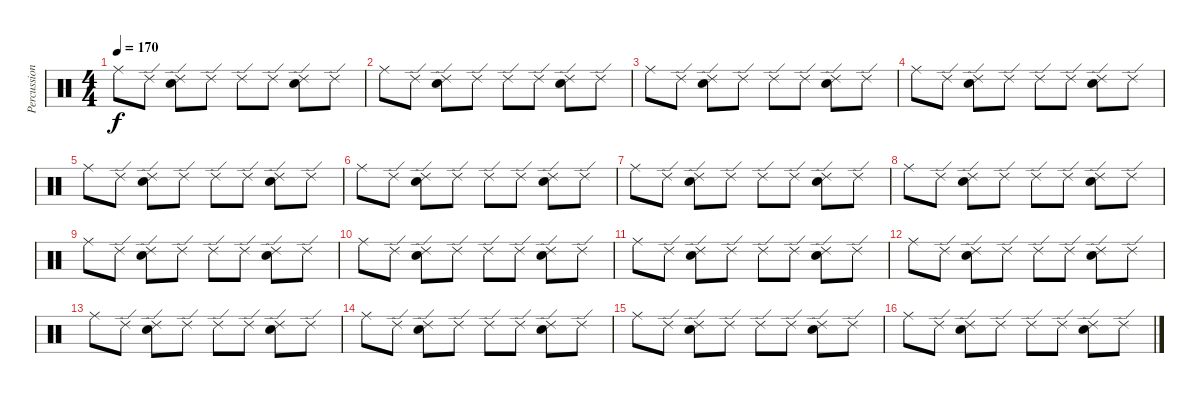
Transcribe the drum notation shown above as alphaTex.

\track ("Percussion" "Percussion") {instrument percussion}
\staff {score}
\articulation defaults
\ts (4 4)
\tempo 170
\clef neutral
\ks c "Ride (middle)".8{dy f} "Ride (edge) 2".8
("Ride (edge) 2" "Electric Snare (hit)").8 "Ride (edge) 2".8 "Ride (edge) 2".8 "Ride (edge) 2".8 ("Ride (edge) 2" "Electric Snare (hit)").8 "Ride (edge) 2".8 |
"Ride (middle)".8 "Ride (edge) 2".8 ("Ride (edge) 2" "Electric Snare (hit)").8 "Ride (edge) 2".8 "Ride (edge) 2".8 "Ride (edge) 2".8 ("Ride (edge) 2" "Electric Snare (hit)").8 "Ride (edge) 2".8 |
"Ride (middle)".8 "Ride (edge) 2".8 ("Ride (edge) 2" "Electric Snare (hit)").8 "Ride (edge) 2".8 "Ride (edge) 2".8 "Ride (edge) 2".8 ("Ride (edge) 2" "Electric Snare (hit)").8 "Ride (edge) 2".8 |
"Ride (middle)".8 "Ride (edge) 2".8 ("Ride (edge) 2" "Electric Snare (hit)").8 "Ride (edge) 2".8 "Ride (edge) 2".8 "Ride (edge) 2".8 ("Ride (edge) 2" "Electric Snare (hit)").8 "Ride (edge) 2".8 |
"Ride (middle)".8 "Ride (edge) 2".8 ("Ride (edge) 2" "Electric Snare (hit)").8 "Ride (edge) 2".8 "Ride (edge) 2".8 "Ride (edge) 2".8 ("Ride (edge) 2" "Electric Snare (hit)").8 "Ride (edge) 2".8 |
"Ride (middle)".8 "Ride (edge) 2".8 ("Ride (edge) 2" "Electric Snare (hit)").8 "Ride (edge) 2".8 "Ride (edge) 2".8 "Ride (edge) 2".8 ("Ride (edge) 2" "Electric Snare (hit)").8 "Ride (edge) 2".8 |
"Ride (middle)".8 "Ride (edge) 2".8 ("Ride (edge) 2" "Electric Snare (hit)").8 "Ride (edge) 2".8 "Ride (edge) 2".8 "Ride (edge) 2".8 ("Ride (edge) 2" "Electric Snare (hit)").8 "Ride (edge) 2".8 |
"Ride (middle)".8 "Ride (edge) 2".8 ("Ride (edge) 2" "Electric Snare (hit)").8 "Ride (edge) 2".8 "Ride (edge) 2".8 "Ride (edge) 2".8 ("Ride (edge) 2" "Electric Snare (hit)").8 "Ride (edge) 2".8 |
"Ride (middle)".8 "Ride (edge) 2".8 ("Ride (edge) 2" "Electric Snare (hit)").8 "Ride (edge) 2".8 "Ride (edge) 2".8 "Ride (edge) 2".8 ("Ride (edge) 2" "Electric Snare (hit)").8 "Ride (edge) 2".8 |
"Ride (middle)".8 "Ride (edge) 2".8 ("Ride (edge) 2" "Electric Snare (hit)").8 "Ride (edge) 2".8 "Ride (edge) 2".8 "Ride (edge) 2".8 ("Ride (edge) 2" "Electric Snare (hit)").8 "Ride (edge) 2".8 |
"Ride (middle)".8 "Ride (edge) 2".8 ("Ride (edge) 2" "Electric Snare (hit)").8 "Ride (edge) 2".8 "Ride (edge) 2".8 "Ride (edge) 2".8 ("Ride (edge) 2" "Electric Snare (hit)").8 "Ride (edge) 2".8 |
"Ride (middle)".8 "Ride (edge) 2".8 ("Ride (edge) 2" "Electric Snare (hit)").8 "Ride (edge) 2".8 "Ride (edge) 2".8 "Ride (edge) 2".8 ("Ride (edge) 2" "Electric Snare (hit)").8 "Ride (edge) 2".8 |
"Ride (middle)".8 "Ride (edge) 2".8 ("Ride (edge) 2" "Electric Snare (hit)").8 "Ride (edge) 2".8 "Ride (edge) 2".8 "Ride (edge) 2".8 ("Ride (edge) 2" "Electric Snare (hit)").8 "Ride (edge) 2".8 |
"Ride (middle)".8 "Ride (edge) 2".8 ("Ride (edge) 2" "Electric Snare (hit)").8 "Ride (edge) 2".8 "Ride (edge) 2".8 "Ride (edge) 2".8 ("Ride (edge) 2" "Electric Snare (hit)").8 "Ride (edge) 2".8 |
"Ride (middle)".8 "Ride (edge) 2".8 ("Ride (edge) 2" "Electric Snare (hit)").8 "Ride (edge) 2".8 "Ride (edge) 2".8 "Ride (edge) 2".8 ("Ride (edge) 2" "Electric Snare (hit)").8 "Ride (edge) 2".8 |
"Ride (middle)".8 "Ride (edge) 2".8 ("Ride (edge) 2" "Electric Snare (hit)").8 "Ride (edge) 2".8 "Ride (edge) 2".8 "Ride (edge) 2".8 ("Ride (edge) 2" "Electric Snare (hit)").8 "Ride (edge) 2".8
